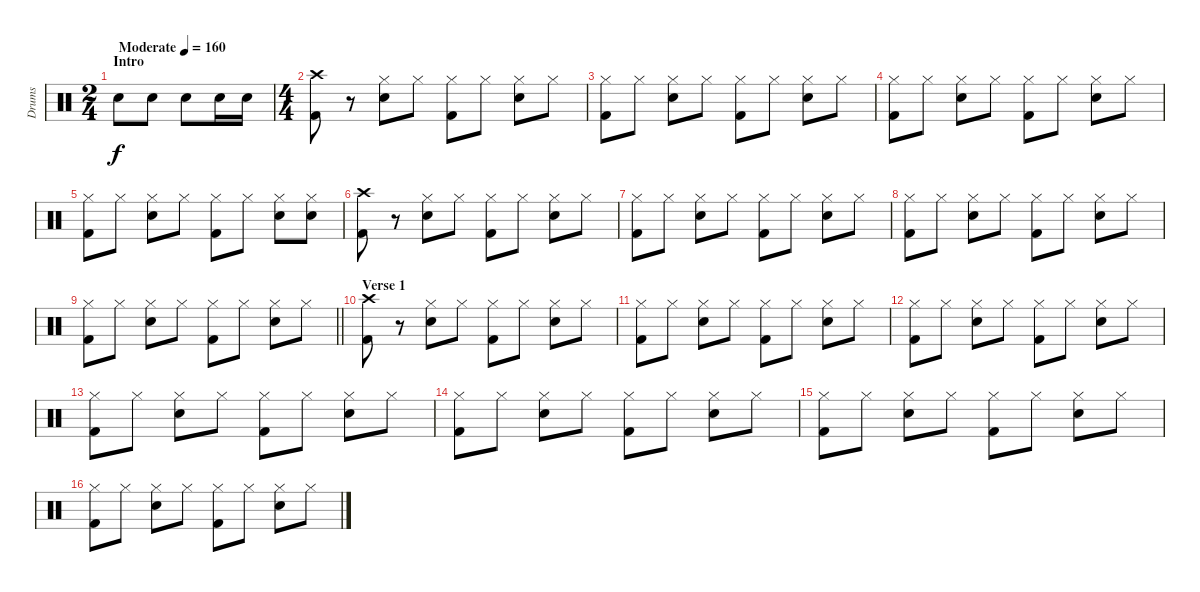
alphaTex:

\track ("Drums" "Drums") {instrument percussion}
\staff {score}
\articulation defaults
\ts (2 4)
\section ("" "Intro")
\tempo (160 "Moderate")
\clef neutral
\ks c "Electric Snare (hit)".8{dy f} "Electric Snare (hit)".8 "Electric Snare (hit)".8 "Electric Snare (hit)".16 "Electric Snare (hit)".16
|
\ts (4 4)
("Crash high (hit)" "Kick (hit) 2").8 r.8 ("Hi-Hat (closed)" "Electric Snare (hit)").8 "Hi-Hat (closed)".8 ("Hi-Hat (closed)" "Kick (hit) 2").8 "Hi-Hat (closed)".8 ("Hi-Hat (closed)" "Electric Snare (hit)").8 "Hi-Hat (closed)".8 |
("Hi-Hat (closed)" "Kick (hit) 2").8 "Hi-Hat (closed)".8 ("Hi-Hat (closed)" "Electric Snare (hit)").8 "Hi-Hat (closed)".8 ("Hi-Hat (closed)" "Kick (hit) 2").8 "Hi-Hat (closed)".8 ("Hi-Hat (closed)" "Electric Snare (hit)").8 "Hi-Hat (closed)".8 |
("Hi-Hat (closed)" "Kick (hit) 2").8 "Hi-Hat (closed)".8 ("Hi-Hat (closed)" "Electric Snare (hit)").8 "Hi-Hat (closed)".8 ("Hi-Hat (closed)" "Kick (hit) 2").8 "Hi-Hat (closed)".8 ("Hi-Hat (closed)" "Electric Snare (hit)").8 "Hi-Hat (closed)".8 |
("Hi-Hat (closed)" "Kick (hit) 2").8 "Hi-Hat (closed)".8 ("Hi-Hat (closed)" "Electric Snare (hit)").8 "Hi-Hat (closed)".8 ("Hi-Hat (closed)" "Kick (hit) 2").8 "Hi-Hat (closed)".8 ("Hi-Hat (closed)" "Electric Snare (hit)").8 ("Hi-Hat (closed)" "Electric Snare (hit)").8 |
("Crash high (hit)" "Kick (hit) 2").8 r.8 ("Hi-Hat (closed)" "Electric Snare (hit)").8 "Hi-Hat (closed)".8 ("Hi-Hat (closed)" "Kick (hit) 2").8 "Hi-Hat (closed)".8 ("Hi-Hat (closed)" "Electric Snare (hit)").8 "Hi-Hat (closed)".8 |
("Hi-Hat (closed)" "Kick (hit) 2").8 "Hi-Hat (closed)".8 ("Hi-Hat (closed)" "Electric Snare (hit)").8 "Hi-Hat (closed)".8 ("Hi-Hat (closed)" "Kick (hit) 2").8 "Hi-Hat (closed)".8 ("Hi-Hat (closed)" "Electric Snare (hit)").8 "Hi-Hat (closed)".8 |
("Hi-Hat (closed)" "Kick (hit) 2").8 "Hi-Hat (closed)".8 ("Hi-Hat (closed)" "Electric Snare (hit)").8 "Hi-Hat (closed)".8 ("Hi-Hat (closed)" "Kick (hit) 2").8 "Hi-Hat (closed)".8 ("Hi-Hat (closed)" "Electric Snare (hit)").8 "Hi-Hat (closed)".8 |
\barLineRight lightlight
("Hi-Hat (closed)" "Kick (hit) 2").8 "Hi-Hat (closed)".8 ("Hi-Hat (closed)" "Electric Snare (hit)").8 "Hi-Hat (closed)".8 ("Hi-Hat (closed)" "Kick (hit) 2").8 "Hi-Hat (closed)".8 ("Hi-Hat (closed)" "Electric Snare (hit)").8 "Hi-Hat (closed)".8 |
\section ("" "Verse 1")
("Crash high (hit)" "Kick (hit) 2").8 r.8 ("Hi-Hat (closed)" "Electric Snare (hit)").8 "Hi-Hat (closed)".8 ("Hi-Hat (closed)" "Kick (hit) 2").8 "Hi-Hat (closed)".8 ("Hi-Hat (closed)" "Electric Snare (hit)").8 "Hi-Hat (closed)".8 |
("Hi-Hat (closed)" "Kick (hit) 2").8 "Hi-Hat (closed)".8 ("Hi-Hat (closed)" "Electric Snare (hit)").8 "Hi-Hat (closed)".8 ("Hi-Hat (closed)" "Kick (hit) 2").8 "Hi-Hat (closed)".8 ("Hi-Hat (closed)" "Electric Snare (hit)").8 "Hi-Hat (closed)".8 |
("Hi-Hat (closed)" "Kick (hit) 2").8 "Hi-Hat (closed)".8 ("Hi-Hat (closed)" "Electric Snare (hit)").8 "Hi-Hat (closed)".8 ("Hi-Hat (closed)" "Kick (hit) 2").8 "Hi-Hat (closed)".8 ("Hi-Hat (closed)" "Electric Snare (hit)").8 "Hi-Hat (closed)".8 |
("Hi-Hat (closed)" "Kick (hit) 2").8 "Hi-Hat (closed)".8 ("Hi-Hat (closed)" "Electric Snare (hit)").8 "Hi-Hat (closed)".8 ("Hi-Hat (closed)" "Kick (hit) 2").8 "Hi-Hat (closed)".8 ("Hi-Hat (closed)" "Electric Snare (hit)").8 "Hi-Hat (closed)".8 |
("Hi-Hat (closed)" "Kick (hit) 2").8 "Hi-Hat (closed)".8 ("Hi-Hat (closed)" "Electric Snare (hit)").8 "Hi-Hat (closed)".8 ("Hi-Hat (closed)" "Kick (hit) 2").8 "Hi-Hat (closed)".8 ("Hi-Hat (closed)" "Electric Snare (hit)").8 "Hi-Hat (closed)".8 |
("Hi-Hat (closed)" "Kick (hit) 2").8 "Hi-Hat (closed)".8 ("Hi-Hat (closed)" "Electric Snare (hit)").8 "Hi-Hat (closed)".8 ("Hi-Hat (closed)" "Kick (hit) 2").8 "Hi-Hat (closed)".8 ("Hi-Hat (closed)" "Electric Snare (hit)").8 "Hi-Hat (closed)".8 |
("Hi-Hat (closed)" "Kick (hit) 2").8 "Hi-Hat (closed)".8 ("Hi-Hat (closed)" "Electric Snare (hit)").8 "Hi-Hat (closed)".8 ("Hi-Hat (closed)" "Kick (hit) 2").8 "Hi-Hat (closed)".8 ("Hi-Hat (closed)" "Electric Snare (hit)").8 "Hi-Hat (closed)".8
